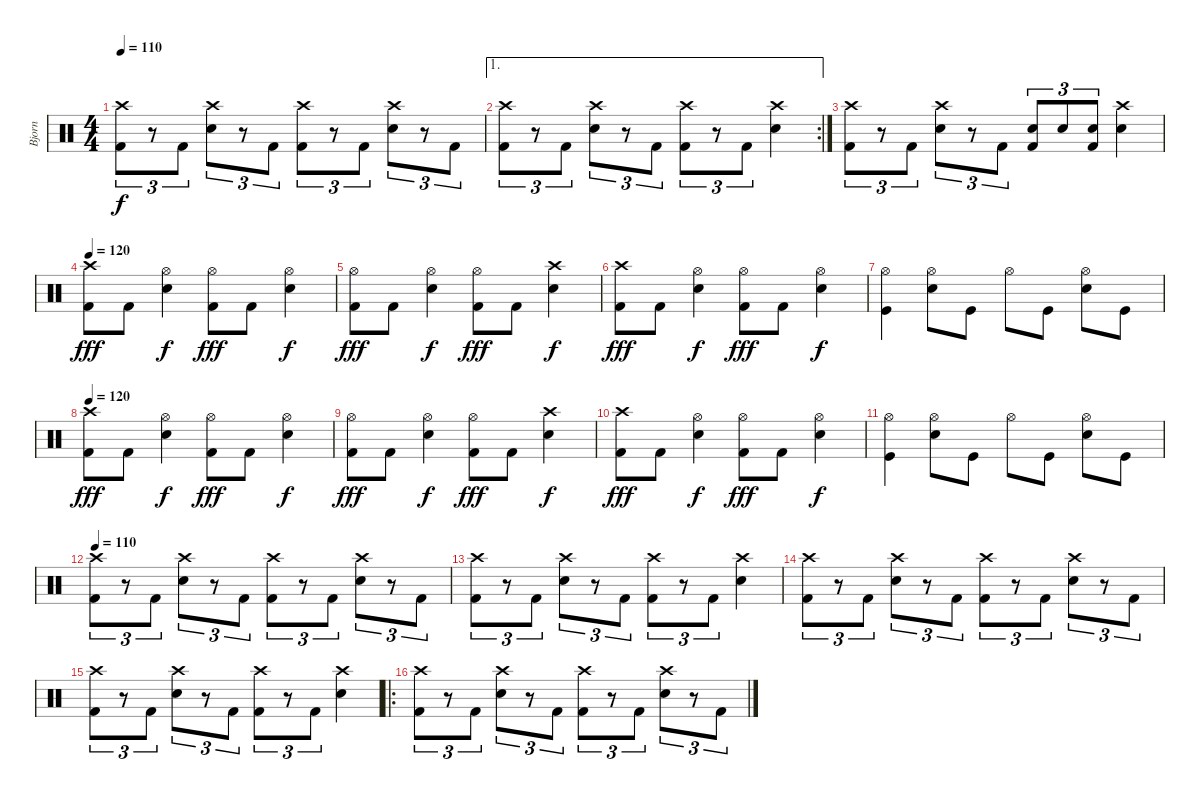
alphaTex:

\track ("Bjorn " "Bjorn ") {instrument percussion}
\staff {score}
\articulation defaults
\ts (4 4)
\tempo 110
\clef neutral
\ks c
("Crash high (hit)" "Kick (hit) 2").8{tu (3 2) dy f} r.8{tu (3 2)} "Kick (hit) 2".8{tu (3 2)} ("Crash high (hit)" "Electric Snare (hit)").8{tu (3 2)} r.8{tu (3 2)} "Kick (hit) 2".8{tu (3 2)} ("Crash high (hit)" "Kick (hit) 2").8{tu (3 2)} r.8{tu (3 2)} "Kick (hit) 2".8{tu (3 2)} ("Crash high (hit)" "Electric Snare (hit)").8{tu (3 2)} r.8{tu (3 2)} "Kick (hit) 2".8{tu (3 2)} |
\ae 1
\rc 2
("Crash high (hit)" "Kick (hit) 2").8{tu (3 2)} r.8{tu (3 2)} "Kick (hit) 2".8{tu (3 2)} ("Crash high (hit)" "Electric Snare (hit)").8{tu (3 2)} r.8{tu (3 2)} "Kick (hit) 2".8{tu (3 2)} ("Crash high (hit)" "Kick (hit) 2").8{tu (3 2)} r.8{tu (3 2)} "Kick (hit) 2".8{tu (3 2)} ("Crash high (hit)" "Electric Snare (hit)").4 |
("Crash high (hit)" "Kick (hit) 2").8{tu (3 2)} r.8{tu (3 2)} "Kick (hit) 2".8{tu (3 2)} ("Crash high (hit)" "Electric Snare (hit)").8{tu (3 2)} r.8{tu (3 2)} "Kick (hit) 2".8{tu (3 2)} ("Electric Snare (hit)" "Kick (hit) 2").8{tu (3 2)} "Electric Snare (hit)".8{tu (3 2)} ("Electric Snare (hit)" "Kick (hit) 2").8{tu (3 2)} ("Crash high (hit)" "Electric Snare (hit)").4 |
\tempo 120
("Crash high (hit)" "Kick (hit) 2").8{dy fff} "Kick (hit) 2".8 ("Hi-Hat (open)" "Electric Snare (hit)").4{dy f} ("Hi-Hat (open)" "Kick (hit) 2").8{dy fff} "Kick (hit) 2".8 ("Hi-Hat (open)" "Electric Snare (hit)").4{dy f} |
("Hi-Hat (open)" "Kick (hit) 2").8{dy fff} "Kick (hit) 2".8 ("Hi-Hat (open)" "Electric Snare (hit)").4{dy f} ("Hi-Hat (open)" "Kick (hit) 2").8{dy fff} "Kick (hit) 2".8 ("Crash high (hit)" "Electric Snare (hit)").4{dy f} |
("Crash high (hit)" "Kick (hit) 2").8{dy fff} "Kick (hit) 2".8 ("Hi-Hat (open)" "Electric Snare (hit)").4{dy f} ("Hi-Hat (open)" "Kick (hit) 2").8{dy fff} "Kick (hit) 2".8 ("Hi-Hat (open)" "Electric Snare (hit)").4{dy f} |
("Hi-Hat (open)" "Kick (hit)").4 ("Hi-Hat (open)" "Electric Snare (hit)").8 "Kick (hit)".8 "Hi-Hat (open)".8 "Kick (hit)".8 ("Hi-Hat (open)" "Electric Snare (hit)").8 "Kick (hit)".8 |
\tempo 120
("Crash high (hit)" "Kick (hit) 2").8{dy fff} "Kick (hit) 2".8 ("Hi-Hat (open)" "Electric Snare (hit)").4{dy f} ("Hi-Hat (open)" "Kick (hit) 2").8{dy fff} "Kick (hit) 2".8 ("Hi-Hat (open)" "Electric Snare (hit)").4{dy f} |
("Hi-Hat (open)" "Kick (hit) 2").8{dy fff} "Kick (hit) 2".8 ("Hi-Hat (open)" "Electric Snare (hit)").4{dy f} ("Hi-Hat (open)" "Kick (hit) 2").8{dy fff} "Kick (hit) 2".8 ("Crash high (hit)" "Electric Snare (hit)").4{dy f} |
("Crash high (hit)" "Kick (hit) 2").8{dy fff} "Kick (hit) 2".8 ("Hi-Hat (open)" "Electric Snare (hit)").4{dy f} ("Hi-Hat (open)" "Kick (hit) 2").8{dy fff} "Kick (hit) 2".8 ("Hi-Hat (open)" "Electric Snare (hit)").4{dy f} |
("Hi-Hat (open)" "Kick (hit)").4 ("Hi-Hat (open)" "Electric Snare (hit)").8 "Kick (hit)".8 "Hi-Hat (open)".8 "Kick (hit)".8 ("Hi-Hat (open)" "Electric Snare (hit)").8 "Kick (hit)".8 |
\tempo 110
("Crash high (hit)" "Kick (hit) 2").8{tu (3 2)} r.8{tu (3 2)} "Kick (hit) 2".8{tu (3 2)} ("Crash high (hit)" "Electric Snare (hit)").8{tu (3 2)} r.8{tu (3 2)} "Kick (hit) 2".8{tu (3 2)} ("Crash high (hit)" "Kick (hit) 2").8{tu (3 2)} r.8{tu (3 2)} "Kick (hit) 2".8{tu (3 2)} ("Crash high (hit)" "Electric Snare (hit)").8{tu (3 2)} r.8{tu (3 2)} "Kick (hit) 2".8{tu (3 2)} |
("Crash high (hit)" "Kick (hit) 2").8{tu (3 2)} r.8{tu (3 2)} "Kick (hit) 2".8{tu (3 2)} ("Crash high (hit)" "Electric Snare (hit)").8{tu (3 2)} r.8{tu (3 2)} "Kick (hit) 2".8{tu (3 2)} ("Crash high (hit)" "Kick (hit) 2").8{tu (3 2)} r.8{tu (3 2)} "Kick (hit) 2".8{tu (3 2)} ("Crash high (hit)" "Electric Snare (hit)").4 |
("Crash high (hit)" "Kick (hit) 2").8{tu (3 2)} r.8{tu (3 2)} "Kick (hit) 2".8{tu (3 2)} ("Crash high (hit)" "Electric Snare (hit)").8{tu (3 2)} r.8{tu (3 2)} "Kick (hit) 2".8{tu (3 2)} ("Crash high (hit)" "Kick (hit) 2").8{tu (3 2)} r.8{tu (3 2)} "Kick (hit) 2".8{tu (3 2)} ("Crash high (hit)" "Electric Snare (hit)").8{tu (3 2)} r.8{tu (3 2)} "Kick (hit) 2".8{tu (3 2)} |
("Crash high (hit)" "Kick (hit) 2").8{tu (3 2)} r.8{tu (3 2)} "Kick (hit) 2".8{tu (3 2)} ("Crash high (hit)" "Electric Snare (hit)").8{tu (3 2)} r.8{tu (3 2)} "Kick (hit) 2".8{tu (3 2)} ("Crash high (hit)" "Kick (hit) 2").8{tu (3 2)} r.8{tu (3 2)} "Kick (hit) 2".8{tu (3 2)} ("Crash high (hit)" "Electric Snare (hit)").4 |
\ro
("Crash high (hit)" "Kick (hit) 2").8{tu (3 2)} r.8{tu (3 2)} "Kick (hit) 2".8{tu (3 2)} ("Crash high (hit)" "Electric Snare (hit)").8{tu (3 2)} r.8{tu (3 2)} "Kick (hit) 2".8{tu (3 2)} ("Crash high (hit)" "Kick (hit) 2").8{tu (3 2)} r.8{tu (3 2)} "Kick (hit) 2".8{tu (3 2)} ("Crash high (hit)" "Electric Snare (hit)").8{tu (3 2)} r.8{tu (3 2)} "Kick (hit) 2".8{tu (3 2)}
